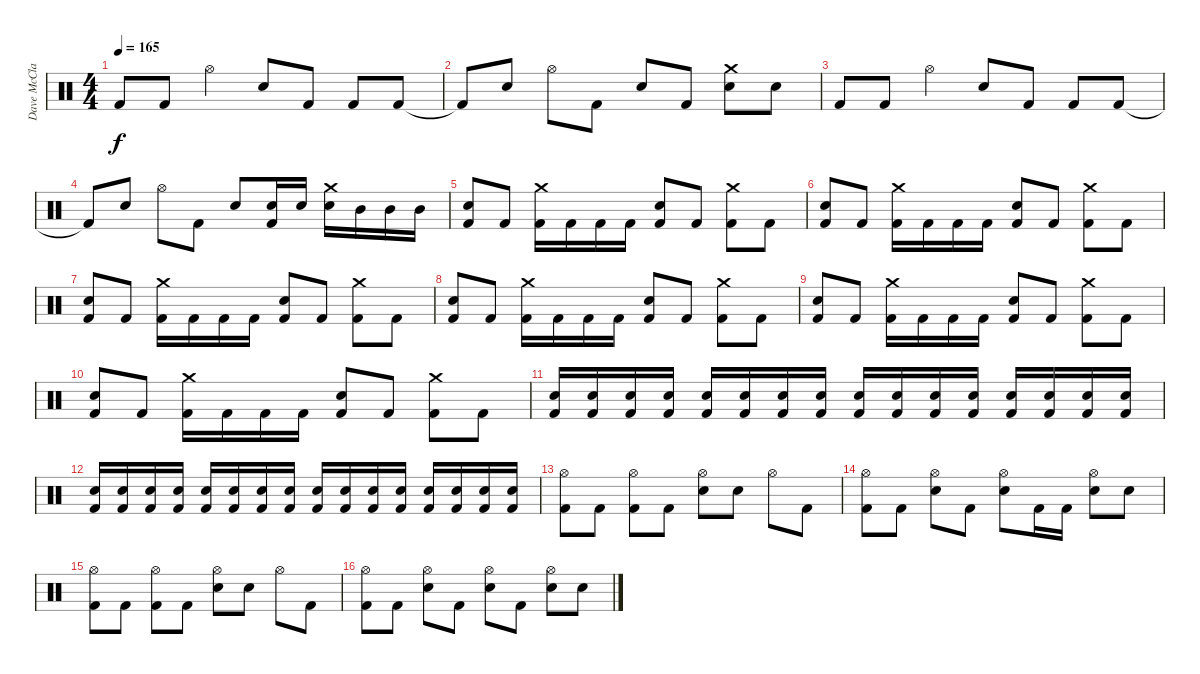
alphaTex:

\track ("Dave McClain" "Dave McCla") {instrument percussion}
\staff {score}
\articulation defaults
\ts (4 4)
\tempo 165
\clef neutral
\ks c "Kick (hit) 2".8{dy f} "Kick (hit) 2".8 "Hi-Hat (open)".4 "Electric Snare (hit)".8 "Kick (hit) 2".8 "Kick (hit) 2".8 "Kick (hit) 2".8
|
"Kick (hit) 2"{t}.8 "Electric Snare (hit)".8 "Hi-Hat (open)".8 "Kick (hit) 2".8 "Electric Snare (hit)".8 "Kick (hit) 2".8 ("Crash medium (hit)" "Electric Snare (hit)").8 "Electric Snare (hit)".8 |
"Kick (hit) 2".8 "Kick (hit) 2".8 "Hi-Hat (open)".4 "Electric Snare (hit)".8 "Kick (hit) 2".8 "Kick (hit) 2".8 "Kick (hit) 2".8 |
"Kick (hit) 2"{t}.8 "Electric Snare (hit)".8 "Hi-Hat (open)".8 "Kick (hit) 2".8 "Electric Snare (hit)".8 ("Electric Snare (hit)" "Kick (hit) 2").16 "Electric Snare (hit)".16 ("Crash medium (hit)" "Electric Snare (hit)").16 "Mid Tom (hit)".16 "Mid Tom (hit)".16 "Mid Tom (hit)".16 |
("Electric Snare (hit)" "Kick (hit) 2").8 "Kick (hit) 2".8 ("Crash medium (hit)" "Kick (hit) 2").16 "Kick (hit) 2".16 "Kick (hit) 2".16 "Kick (hit) 2".16 ("Electric Snare (hit)" "Kick (hit) 2").8 "Kick (hit) 2".8 ("Crash medium (hit)" "Kick (hit) 2").8 "Kick (hit) 2".8 |
("Electric Snare (hit)" "Kick (hit) 2").8 "Kick (hit) 2".8 ("Crash medium (hit)" "Kick (hit) 2").16 "Kick (hit) 2".16 "Kick (hit) 2".16 "Kick (hit) 2".16 ("Electric Snare (hit)" "Kick (hit) 2").8 "Kick (hit) 2".8 ("Crash medium (hit)" "Kick (hit) 2").8 "Kick (hit) 2".8 |
("Electric Snare (hit)" "Kick (hit) 2").8 "Kick (hit) 2".8 ("Crash medium (hit)" "Kick (hit) 2").16 "Kick (hit) 2".16 "Kick (hit) 2".16 "Kick (hit) 2".16 ("Electric Snare (hit)" "Kick (hit) 2").8 "Kick (hit) 2".8 ("Crash medium (hit)" "Kick (hit) 2").8 "Kick (hit) 2".8 |
("Electric Snare (hit)" "Kick (hit) 2").8 "Kick (hit) 2".8 ("Crash medium (hit)" "Kick (hit) 2").16 "Kick (hit) 2".16 "Kick (hit) 2".16 "Kick (hit) 2".16 ("Electric Snare (hit)" "Kick (hit) 2").8 "Kick (hit) 2".8 ("Crash medium (hit)" "Kick (hit) 2").8 "Kick (hit) 2".8 |
("Electric Snare (hit)" "Kick (hit) 2").8 "Kick (hit) 2".8 ("Crash medium (hit)" "Kick (hit) 2").16 "Kick (hit) 2".16 "Kick (hit) 2".16 "Kick (hit) 2".16 ("Electric Snare (hit)" "Kick (hit) 2").8 "Kick (hit) 2".8 ("Crash medium (hit)" "Kick (hit) 2").8 "Kick (hit) 2".8 |
("Electric Snare (hit)" "Kick (hit) 2").8 "Kick (hit) 2".8 ("Crash medium (hit)" "Kick (hit) 2").16 "Kick (hit) 2".16 "Kick (hit) 2".16 "Kick (hit) 2".16 ("Electric Snare (hit)" "Kick (hit) 2").8 "Kick (hit) 2".8 ("Crash medium (hit)" "Kick (hit) 2").8 "Kick (hit) 2".8 |
("Electric Snare (hit)" "Kick (hit) 2").16 ("Electric Snare (hit)" "Kick (hit) 2").16 ("Electric Snare (hit)" "Kick (hit) 2").16 ("Electric Snare (hit)" "Kick (hit) 2").16 ("Snare (hit) 2" "Kick (hit) 2").16 ("Snare (hit) 2" "Kick (hit) 2").16 ("Snare (hit) 2" "Kick (hit) 2").16 ("Snare (hit) 2" "Kick (hit) 2").16 ("Electric Snare (hit)" "Kick (hit) 2").16 ("Electric Snare (hit)" "Kick (hit) 2").16 ("Electric Snare (hit)" "Kick (hit) 2").16 ("Electric Snare (hit)" "Kick (hit) 2").16 ("Snare (hit) 2" "Kick (hit) 2").16 ("Snare (hit) 2" "Kick (hit) 2").16 ("Snare (hit) 2" "Kick (hit) 2").16 ("Snare (hit) 2" "Kick (hit) 2").16 |
("Electric Snare (hit)" "Kick (hit) 2").16 ("Electric Snare (hit)" "Kick (hit) 2").16 ("Electric Snare (hit)" "Kick (hit) 2").16 ("Electric Snare (hit)" "Kick (hit) 2").16 ("Snare (hit) 2" "Kick (hit) 2").16 ("Snare (hit) 2" "Kick (hit) 2").16 ("Electric Snare (hit)" "Kick (hit) 2").16 ("Electric Snare (hit)" "Kick (hit) 2").16 ("Snare (hit) 2" "Kick (hit) 2").16 ("Snare (hit) 2" "Kick (hit) 2").16 ("Electric Snare (hit)" "Kick (hit) 2").16 ("Electric Snare (hit)" "Kick (hit) 2").16 ("Snare (hit) 2" "Kick (hit) 2").16 ("Snare (hit) 2" "Kick (hit) 2").16 ("Electric Snare (hit)" "Kick (hit) 2").16 ("Electric Snare (hit)" "Kick (hit) 2").16 |
("Hi-Hat (open)" "Kick (hit) 2").8 "Kick (hit) 2".8 ("Hi-Hat (open)" "Kick (hit) 2").8 "Kick (hit) 2".8 ("Hi-Hat (open)" "Electric Snare (hit)").8 "Electric Snare (hit)".8 "Hi-Hat (open)".8 "Kick (hit) 2".8 |
("Hi-Hat (open)" "Kick (hit) 2").8 "Kick (hit) 2".8 ("Hi-Hat (open)" "Electric Snare (hit)").8 "Kick (hit) 2".8 ("Hi-Hat (open)" "Electric Snare (hit)").8 "Kick (hit) 2".16 "Kick (hit) 2".16 ("Hi-Hat (open)" "Electric Snare (hit)").8 "Electric Snare (hit)".8 |
("Hi-Hat (open)" "Kick (hit) 2").8 "Kick (hit) 2".8 ("Hi-Hat (open)" "Kick (hit) 2").8 "Kick (hit) 2".8 ("Hi-Hat (open)" "Electric Snare (hit)").8 "Electric Snare (hit)".8 "Hi-Hat (open)".8 "Kick (hit) 2".8 |
("Hi-Hat (open)" "Kick (hit) 2").8 "Kick (hit) 2".8 ("Hi-Hat (open)" "Electric Snare (hit)").8 "Kick (hit) 2".8 ("Hi-Hat (open)" "Electric Snare (hit)").8 "Kick (hit) 2".8 ("Hi-Hat (open)" "Electric Snare (hit)").8 "Electric Snare (hit)".8
